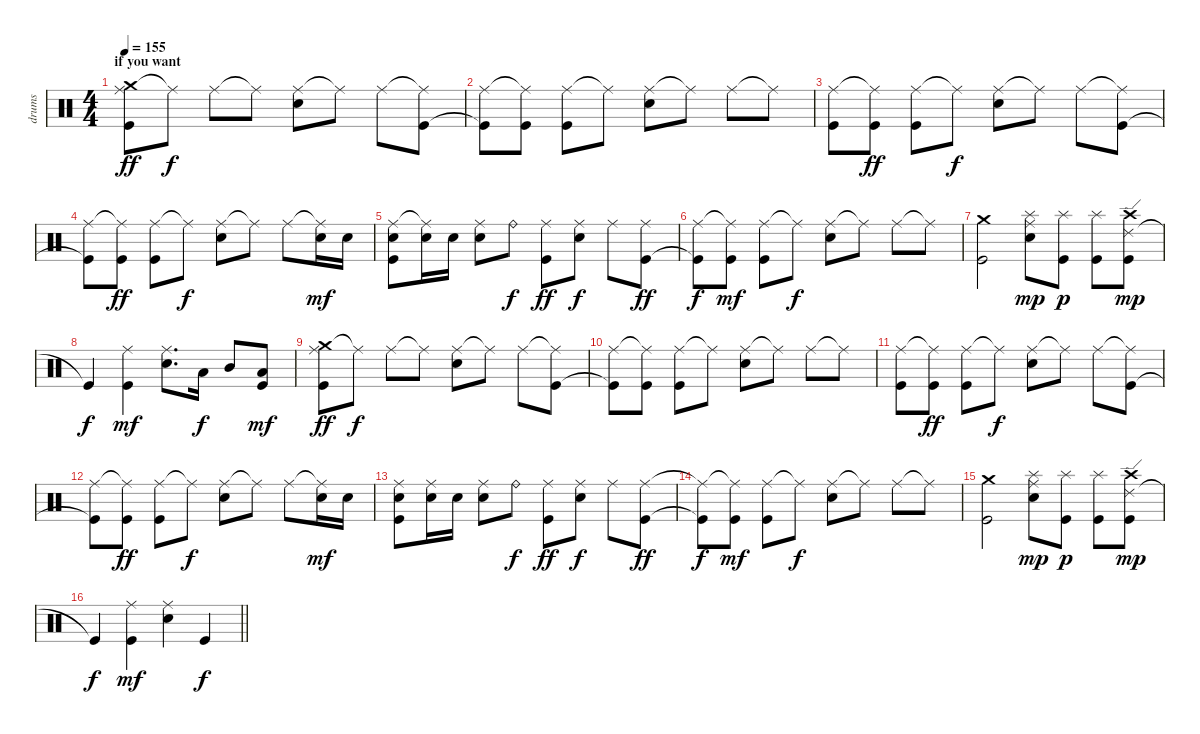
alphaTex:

\track ("drums" "drums") {instrument percussion}
\staff {score}
\articulation defaults
\ts (4 4)
\section ("" "if you want")
\tempo 155
\clef neutral
\ks c
("Crash medium (hit)" "Ride (middle)" "Kick (hit)").8{dy ff} "Ride (middle)"{t}.8{dy f} "Ride (middle)".8 "Ride (middle)"{t}.8 ("Ride (middle)" "Electric Snare (hit)").8 "Ride (middle)"{t}.8 "Ride (middle)".8 ("Ride (middle)"{t} "Kick (hit)").8 |
("Ride (middle)" "Kick (hit)"{t}).8 ("Ride (middle)"{t} "Kick (hit)").8 ("Ride (middle)" "Kick (hit)").8 "Ride (middle)"{t}.8 ("Ride (middle)" "Electric Snare (hit)").8 "Ride (middle)"{t}.8 "Ride (middle)".8 "Ride (middle)"{t}.8 |
("Ride (middle)" "Kick (hit)").8 ("Ride (middle)"{t} "Kick (hit)").8{dy ff} ("Ride (middle)" "Kick (hit)").8 "Ride (middle)"{t}.8{dy f} ("Ride (middle)" "Electric Snare (hit)").8 "Ride (middle)"{t}.8 "Ride (middle)".8 ("Ride (middle)"{t} "Kick (hit)").8 |
("Ride (middle)" "Kick (hit)"{t}).8 ("Ride (middle)"{t} "Kick (hit)").8{dy ff} ("Ride (middle)" "Kick (hit)").8 "Ride (middle)"{t}.8{dy f} ("Ride (middle)" "Electric Snare (hit)").8 "Ride (middle)"{t}.8 "Ride (middle)".8 ("Ride (middle)"{t} "Electric Snare (hit)").16{dy mf} "Electric Snare (hit)".16 |
("Ride (middle)" "Electric Snare (hit)" "Kick (hit)").8 ("Ride (middle)"{t} "Electric Snare (hit)").16 "Electric Snare (hit)".16 ("Ride (middle)" "Electric Snare (hit)").8 "Ride (bell)".8{dy f} ("Ride (middle)" "Kick (hit)").8{dy ff} ("Ride (middle)" "Electric Snare (hit)").8{dy f} "Ride (middle)".8 ("Ride (middle)" "Kick (hit)").8{dy ff} |
("Ride (middle)" "Kick (hit)"{t}).8{dy f} ("Ride (middle)"{t} "Kick (hit)").8{dy mf} ("Ride (middle)" "Kick (hit)").8 "Ride (middle)"{t}.8{dy f} ("Ride (middle)" "Electric Snare (hit)").8 "Ride (middle)"{t}.8 "Ride (middle)".8 "Ride (middle)"{t}.8 |
("Crash medium (hit)" "Kick (hit)").2 ("Ride (middle)" "Splash (hit)" "Electric Snare (hit)").8{dy mp} ("Splash (hit)" "Kick (hit)").8{dy p} ("Splash (hit)" "Kick (hit)").8 ("Ride (edge) 2" "Crash high (hit)" "Kick (hit)").8{dy mp} |
"Kick (hit)"{t}.4{dy f} ("Ride (middle)" "Kick (hit)").4{dy mf} ("Ride (middle)" "Electric Snare (hit)").8{d} "Low Tom (hit)".16{dy f} "Mid Tom (hit)".8 ("Low Floor Tom (hit)" "Kick (hit)").8{dy mf} |
("Crash medium (hit)" "Ride (middle)" "Kick (hit)").8{dy ff} "Ride (middle)"{t}.8{dy f} "Ride (middle)".8 "Ride (middle)"{t}.8 ("Ride (middle)" "Electric Snare (hit)").8 "Ride (middle)"{t}.8 "Ride (middle)".8 ("Ride (middle)"{t} "Kick (hit)").8 |
("Ride (middle)" "Kick (hit)"{t}).8 ("Ride (middle)"{t} "Kick (hit)").8 ("Ride (middle)" "Kick (hit)").8 "Ride (middle)"{t}.8 ("Ride (middle)" "Electric Snare (hit)").8 "Ride (middle)"{t}.8 "Ride (middle)".8 "Ride (middle)"{t}.8 |
("Ride (middle)" "Kick (hit)").8 ("Ride (middle)"{t} "Kick (hit)").8{dy ff} ("Ride (middle)" "Kick (hit)").8 "Ride (middle)"{t}.8{dy f} ("Ride (middle)" "Electric Snare (hit)").8 "Ride (middle)"{t}.8 "Ride (middle)".8 ("Ride (middle)"{t} "Kick (hit)").8 |
("Ride (middle)" "Kick (hit)"{t}).8 ("Ride (middle)"{t} "Kick (hit)").8{dy ff} ("Ride (middle)" "Kick (hit)").8 "Ride (middle)"{t}.8{dy f} ("Ride (middle)" "Electric Snare (hit)").8 "Ride (middle)"{t}.8 "Ride (middle)".8 ("Ride (middle)"{t} "Electric Snare (hit)").16{dy mf} "Electric Snare (hit)".16 |
("Ride (middle)" "Electric Snare (hit)" "Kick (hit)").8 ("Ride (middle)" "Electric Snare (hit)").16 "Electric Snare (hit)".16 ("Ride (middle)" "Electric Snare (hit)").8 "Ride (bell)".8{dy f} ("Ride (middle)" "Kick (hit)").8{dy ff} ("Ride (middle)" "Electric Snare (hit)").8{dy f} "Ride (middle)".8 ("Ride (middle)" "Kick (hit)").8{dy ff} |
("Ride (middle)"{t} "Kick (hit)"{t}).8{dy f} ("Ride (middle)"{t} "Kick (hit)").8{dy mf} ("Ride (middle)" "Kick (hit)").8 "Ride (middle)"{t}.8{dy f} ("Ride (middle)" "Electric Snare (hit)").8 "Ride (middle)"{t}.8 "Ride (middle)".8 "Ride (middle)"{t}.8 |
("Crash medium (hit)" "Kick (hit)").2 ("Ride (middle)" "Splash (hit)" "Electric Snare (hit)").8{dy mp} ("Splash (hit)" "Kick (hit)").8{dy p} ("Splash (hit)" "Kick (hit)").8 ("Ride (edge) 2" "Crash high (hit)" "Kick (hit)").8{dy mp} |
\barLineRight lightlight "Kick (hit)"{t}.4{dy f}
("Ride (middle)" "Kick (hit)").4{dy mf} ("Ride (middle)" "Electric Snare (hit)").4 "Kick (hit)".4{dy f}
